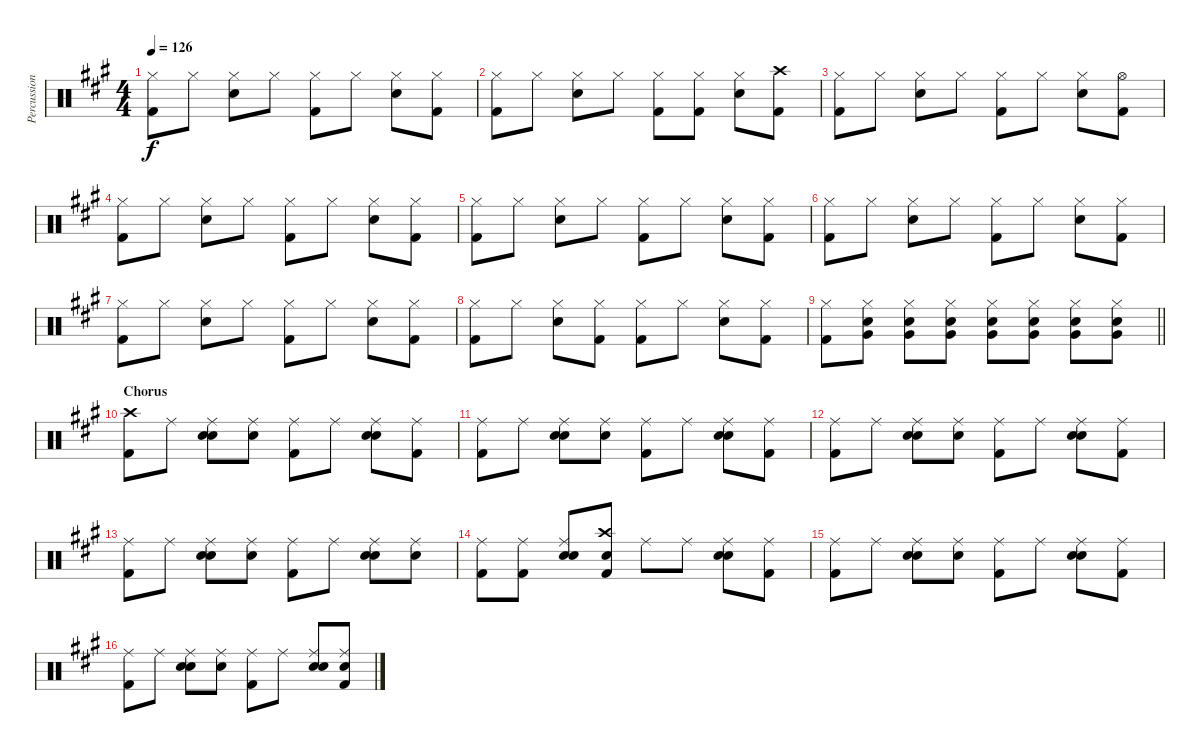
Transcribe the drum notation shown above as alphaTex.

\track ("Percussion" "Percussion") {instrument percussion}
\staff {score}
\articulation defaults
\ts (4 4)
\tempo 126
\clef neutral
\ks a
("Hi-Hat (closed)" "Kick (hit) 2").8{dy f} "Hi-Hat (closed)".8 ("Hi-Hat (closed)" "Snare (hit) 2").8 "Hi-Hat (closed)".8 ("Hi-Hat (closed)" "Kick (hit) 2").8 "Hi-Hat (closed)".8 ("Hi-Hat (closed)" "Snare (hit) 2").8 ("Hi-Hat (closed)" "Kick (hit) 2").8 |
("Hi-Hat (closed)" "Kick (hit) 2").8 "Hi-Hat (closed)".8 ("Hi-Hat (closed)" "Snare (hit) 2").8 "Hi-Hat (closed)".8 ("Hi-Hat (closed)" "Kick (hit) 2").8 ("Hi-Hat (closed)" "Kick (hit) 2").8 ("Hi-Hat (closed)" "Snare (hit) 2").8 ("Crash high (hit)" "Kick (hit) 2").8 |
("Hi-Hat (closed)" "Kick (hit) 2").8 "Hi-Hat (closed)".8 ("Hi-Hat (closed)" "Snare (hit) 2").8 "Hi-Hat (closed)".8 ("Hi-Hat (closed)" "Kick (hit) 2").8 "Hi-Hat (closed)".8 ("Hi-Hat (closed)" "Snare (hit) 2").8 ("Hi-Hat (open)" "Kick (hit) 2").8 |
("Hi-Hat (closed)" "Kick (hit) 2").8 "Hi-Hat (closed)".8 ("Hi-Hat (closed)" "Snare (hit) 2").8 "Hi-Hat (closed)".8 ("Hi-Hat (closed)" "Kick (hit) 2").8 "Hi-Hat (closed)".8 ("Hi-Hat (closed)" "Snare (hit) 2").8 ("Hi-Hat (closed)" "Kick (hit) 2").8 |
("Hi-Hat (closed)" "Kick (hit) 2").8 "Hi-Hat (closed)".8 ("Hi-Hat (closed)" "Snare (hit) 2").8 "Hi-Hat (closed)".8 ("Hi-Hat (closed)" "Kick (hit) 2").8 "Hi-Hat (closed)".8 ("Hi-Hat (closed)" "Snare (hit) 2").8 ("Hi-Hat (closed)" "Kick (hit) 2").8 |
("Hi-Hat (closed)" "Kick (hit) 2").8 "Hi-Hat (closed)".8 ("Hi-Hat (closed)" "Snare (hit) 2").8 "Hi-Hat (closed)".8 ("Hi-Hat (closed)" "Kick (hit) 2").8 "Hi-Hat (closed)".8 ("Hi-Hat (closed)" "Snare (hit) 2").8 ("Hi-Hat (closed)" "Kick (hit) 2").8 |
("Hi-Hat (closed)" "Kick (hit) 2").8 "Hi-Hat (closed)".8 ("Hi-Hat (closed)" "Snare (hit) 2").8 "Hi-Hat (closed)".8 ("Hi-Hat (closed)" "Kick (hit) 2").8 "Hi-Hat (closed)".8 ("Hi-Hat (closed)" "Snare (hit) 2").8 ("Hi-Hat (closed)" "Kick (hit) 2").8 |
("Hi-Hat (closed)" "Kick (hit) 2").8 "Hi-Hat (closed)".8 ("Hi-Hat (closed)" "Snare (hit) 2").8 ("Hi-Hat (closed)" "Kick (hit) 2").8 ("Hi-Hat (closed)" "Kick (hit) 2").8 "Hi-Hat (closed)".8 ("Hi-Hat (closed)" "Snare (hit) 2").8 ("Hi-Hat (closed)" "Kick (hit) 2").8 |
\barLineRight lightlight
("Hi-Hat (closed)" "Kick (hit) 2").8 ("Hi-Hat (closed)" "Very Low Tom (hit)" "Snare (hit) 2").8 ("Hi-Hat (closed)" "Very Low Tom (hit)" "Snare (hit) 2").8 ("Hi-Hat (closed)" "Very Low Tom (hit)" "Snare (hit) 2").8 ("Hi-Hat (closed)" "Very Low Tom (hit)" "Snare (hit) 2").8 ("Hi-Hat (closed)" "Very Low Tom (hit)" "Snare (hit) 2").8 ("Hi-Hat (closed)" "Very Low Tom (hit)" "Snare (hit) 2").8 ("Hi-Hat (closed)" "Very Low Tom (hit)" "Snare (hit) 2").8 |
\section ("" "Chorus")
("Crash high (hit)" "Kick (hit) 2").8 "Ride (middle)".8 ("Ride (middle)" "Hand Clap (hit)" "Snare (hit) 2").8 ("Ride (middle)" "Hand Clap (hit)").8 ("Ride (middle)" "Kick (hit) 2").8 "Ride (middle)".8 ("Ride (middle)" "Hand Clap (hit)" "Snare (hit) 2").8 ("Ride (middle)" "Kick (hit) 2").8 |
("Ride (middle)" "Kick (hit) 2").8 "Ride (middle)".8 ("Ride (middle)" "Hand Clap (hit)" "Snare (hit) 2").8 ("Ride (middle)" "Hand Clap (hit)").8 ("Ride (middle)" "Kick (hit) 2").8 "Ride (middle)".8 ("Ride (middle)" "Hand Clap (hit)" "Snare (hit) 2").8 ("Ride (middle)" "Kick (hit) 2").8 |
("Ride (middle)" "Kick (hit) 2").8 "Ride (middle)".8 ("Ride (middle)" "Hand Clap (hit)" "Snare (hit) 2").8 ("Ride (middle)" "Hand Clap (hit)").8 ("Ride (middle)" "Kick (hit) 2").8 "Ride (middle)".8 ("Ride (middle)" "Hand Clap (hit)" "Snare (hit) 2").8 ("Ride (middle)" "Kick (hit) 2").8 |
("Ride (middle)" "Kick (hit) 2").8 "Ride (middle)".8 ("Ride (middle)" "Hand Clap (hit)" "Snare (hit) 2").8 ("Ride (middle)" "Hand Clap (hit)").8 ("Ride (middle)" "Kick (hit) 2").8 "Ride (middle)".8 ("Ride (middle)" "Hand Clap (hit)" "Snare (hit) 2").8 ("Ride (middle)" "Snare (hit) 2").8 |
("Ride (middle)" "Kick (hit) 2").8 ("Ride (middle)" "Kick (hit) 2").8 ("Ride (middle)" "Hand Clap (hit)" "Snare (hit) 2").8 ("Crash high (hit)" "Hand Clap (hit)" "Kick (hit) 2").8 "Ride (middle)".8 "Ride (middle)".8 ("Ride (middle)" "Hand Clap (hit)" "Snare (hit) 2").8 ("Ride (middle)" "Kick (hit) 2").8 |
("Ride (middle)" "Kick (hit) 2").8 "Ride (middle)".8 ("Ride (middle)" "Hand Clap (hit)" "Snare (hit) 2").8 ("Ride (middle)" "Hand Clap (hit)").8 ("Ride (middle)" "Kick (hit) 2").8 "Ride (middle)".8 ("Ride (middle)" "Hand Clap (hit)" "Snare (hit) 2").8 ("Ride (middle)" "Kick (hit) 2").8 |
("Ride (middle)" "Kick (hit) 2").8 "Ride (middle)".8 ("Ride (middle)" "Hand Clap (hit)" "Snare (hit) 2").8 ("Ride (middle)" "Hand Clap (hit)").8 ("Ride (middle)" "Kick (hit) 2").8 "Ride (middle)".8 ("Ride (middle)" "Hand Clap (hit)" "Snare (hit) 2").8 ("Ride (middle)" "Hand Clap (hit)" "Kick (hit) 2").8
